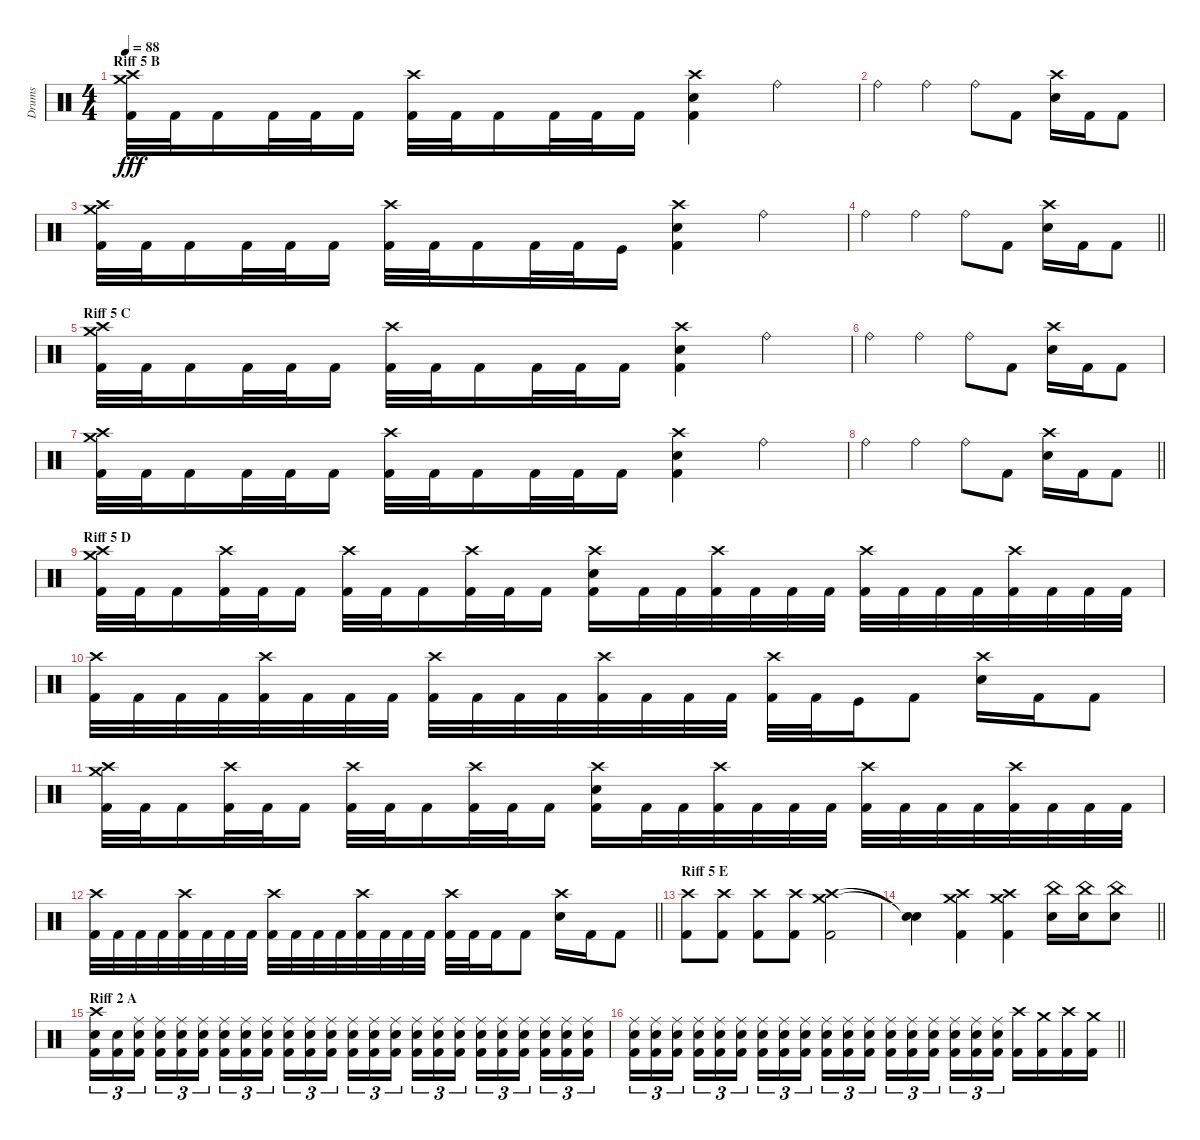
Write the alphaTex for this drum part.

\track ("Drums" "Drums") {instrument percussion}
\staff {score}
\articulation defaults
\ts (4 4)
\section ("" "Riff 5 B")
\tempo 88
\clef neutral
\ks c
("Crash medium (hit)" "Crash high (hit)" "Kick (hit) 2").32{dy fff} "Kick (hit) 2".32 "Kick (hit) 2".16 "Kick (hit) 2".32 "Kick (hit) 2".32 "Kick (hit) 2".16 ("Crash high (hit)" "Kick (hit) 2").32 "Kick (hit) 2".32 "Kick (hit) 2".16 "Kick (hit) 2".32 "Kick (hit) 2".32 "Kick (hit) 2".16 ("Crash high (hit)" "Electric Snare (hit)" "Kick (hit) 2").4 "Ride (bell)".4 |
"Ride (bell)".4 "Ride (bell)".4 "Ride (bell)".8 "Kick (hit) 2".8 ("Crash high (hit)" "Electric Snare (hit)").16 "Kick (hit) 2".16 "Kick (hit) 2".8 |
("Crash medium (hit)" "Crash high (hit)" "Kick (hit) 2").32 "Kick (hit) 2".32 "Kick (hit) 2".16 "Kick (hit) 2".32 "Kick (hit) 2".32 "Kick (hit) 2".16 ("Crash high (hit)" "Kick (hit) 2").32 "Kick (hit) 2".32 "Kick (hit) 2".16 "Kick (hit) 2".32 "Kick (hit) 2".32 "Kick (hit)".16 ("Crash high (hit)" "Electric Snare (hit)" "Kick (hit) 2").4 "Ride (bell)".4 |
\barLineRight lightlight "Ride (bell)".4 "Ride (bell)".4 "Ride (bell)".8 "Kick (hit) 2".8
("Crash high (hit)" "Electric Snare (hit)").16 "Kick (hit) 2".16 "Kick (hit) 2".8 |
\section ("" "Riff 5 C")
("Crash medium (hit)" "Crash high (hit)" "Kick (hit) 2").32 "Kick (hit) 2".32 "Kick (hit) 2".16 "Kick (hit) 2".32 "Kick (hit) 2".32 "Kick (hit) 2".16 ("Crash high (hit)" "Kick (hit) 2").32 "Kick (hit) 2".32 "Kick (hit) 2".16 "Kick (hit) 2".32 "Kick (hit) 2".32 "Kick (hit) 2".16 ("Crash high (hit)" "Electric Snare (hit)" "Kick (hit) 2").4 "Ride (bell)".4 |
"Ride (bell)".4 "Ride (bell)".4 "Ride (bell)".8 "Kick (hit) 2".8 ("Crash high (hit)" "Electric Snare (hit)").16 "Kick (hit) 2".16 "Kick (hit) 2".8 |
("Crash medium (hit)" "Crash high (hit)" "Kick (hit) 2").32 "Kick (hit) 2".32 "Kick (hit) 2".16 "Kick (hit) 2".32 "Kick (hit) 2".32 "Kick (hit) 2".16 ("Crash high (hit)" "Kick (hit) 2").32 "Kick (hit) 2".32 "Kick (hit) 2".16 "Kick (hit) 2".32 "Kick (hit) 2".32 "Kick (hit) 2".16 ("Crash high (hit)" "Electric Snare (hit)" "Kick (hit) 2").4 "Ride (bell)".4 |
\barLineRight lightlight "Ride (bell)".4 "Ride (bell)".4 "Ride (bell)".8 "Kick (hit) 2".8
("Crash high (hit)" "Electric Snare (hit)").16 "Kick (hit) 2".16 "Kick (hit) 2".8 |
\section ("" "Riff 5 D")
("Crash medium (hit)" "Crash high (hit)" "Kick (hit) 2").32 "Kick (hit) 2".32 "Kick (hit) 2".16 ("Crash high (hit)" "Kick (hit) 2").32 "Kick (hit) 2".32 "Kick (hit) 2".16 ("Crash high (hit)" "Kick (hit) 2").32 "Kick (hit) 2".32 "Kick (hit) 2".16 ("Crash high (hit)" "Kick (hit) 2").32 "Kick (hit) 2".32 "Kick (hit) 2".16 ("Crash high (hit)" "Electric Snare (hit)" "Kick (hit) 2").16 "Kick (hit) 2".32 "Kick (hit) 2".32 ("Crash high (hit)" "Kick (hit) 2").32 "Kick (hit) 2".32 "Kick (hit) 2".32 "Kick (hit) 2".32 ("Crash high (hit)" "Kick (hit) 2").32 "Kick (hit) 2".32 "Kick (hit) 2".32 "Kick (hit) 2".32 ("Crash high (hit)" "Kick (hit) 2").32 "Kick (hit) 2".32 "Kick (hit) 2".32 "Kick (hit) 2".32 |
("Crash high (hit)" "Kick (hit) 2").32 "Kick (hit) 2".32 "Kick (hit) 2".32 "Kick (hit) 2".32 ("Crash high (hit)" "Kick (hit) 2").32 "Kick (hit) 2".32 "Kick (hit) 2".32 "Kick (hit) 2".32 ("Crash high (hit)" "Kick (hit) 2").32 "Kick (hit) 2".32 "Kick (hit) 2".32 "Kick (hit) 2".32 ("Crash high (hit)" "Kick (hit) 2").32 "Kick (hit) 2".32 "Kick (hit) 2".32 "Kick (hit) 2".32 ("Crash high (hit)" "Kick (hit) 2").32 "Kick (hit) 2".32 "Kick (hit)".16 "Kick (hit) 2".8 ("Crash high (hit)" "Electric Snare (hit)").16 "Kick (hit) 2".16 "Kick (hit) 2".8 |
("Crash medium (hit)" "Crash high (hit)" "Kick (hit) 2").32 "Kick (hit) 2".32 "Kick (hit) 2".16 ("Crash high (hit)" "Kick (hit) 2").32 "Kick (hit) 2".32 "Kick (hit) 2".16 ("Crash high (hit)" "Kick (hit) 2").32 "Kick (hit) 2".32 "Kick (hit) 2".16 ("Crash high (hit)" "Kick (hit) 2").32 "Kick (hit) 2".32 "Kick (hit) 2".16 ("Crash high (hit)" "Electric Snare (hit)" "Kick (hit) 2").16 "Kick (hit) 2".32 "Kick (hit) 2".32 ("Crash high (hit)" "Kick (hit) 2").32 "Kick (hit) 2".32 "Kick (hit) 2".32 "Kick (hit) 2".32 ("Crash high (hit)" "Kick (hit) 2").32 "Kick (hit) 2".32 "Kick (hit) 2".32 "Kick (hit) 2".32 ("Crash high (hit)" "Kick (hit) 2").32 "Kick (hit) 2".32 "Kick (hit) 2".32 "Kick (hit) 2".32 |
\barLineRight lightlight
("Crash high (hit)" "Kick (hit) 2").32 "Kick (hit) 2".32 "Kick (hit) 2".32 "Kick (hit) 2".32 ("Crash high (hit)" "Kick (hit) 2").32 "Kick (hit) 2".32 "Kick (hit) 2".32 "Kick (hit) 2".32 ("Crash high (hit)" "Kick (hit) 2").32 "Kick (hit) 2".32 "Kick (hit) 2".32 "Kick (hit) 2".32 ("Crash high (hit)" "Kick (hit) 2").32 "Kick (hit) 2".32 "Kick (hit) 2".32 "Kick (hit) 2".32 ("Crash high (hit)" "Kick (hit) 2").32 "Kick (hit) 2".32 "Kick (hit) 2".16 "Kick (hit) 2".8 ("Crash high (hit)" "Electric Snare (hit)").16 "Kick (hit) 2".16 "Kick (hit) 2".8 |
\section ("" "Riff 5 E")
("Crash high (hit)" "Kick (hit) 2").8 ("Crash high (hit)" "Kick (hit) 2").8 ("Crash high (hit)" "Kick (hit) 2").8 ("Crash high (hit)" "Kick (hit) 2").8 ("Crash medium (hit)" "Crash high (hit)" "Kick (hit) 2").2 |
\barLineRight lightlight
("Snare (hit)"{t} "Snare (hit)"{t}).4 ("Crash medium (hit)" "Crash high (hit)" "Kick (hit) 2").4 ("Crash medium (hit)" "Crash high (hit)" "Kick (hit) 2").4 ("China (hit)" "Electric Snare (hit)").16 ("China (hit)" "Electric Snare (hit)").16 ("China (hit)" "Electric Snare (hit)").8 |
\section ("" "Riff 2 A")
("Crash high (hit)" "Electric Snare (hit)" "Kick (hit) 2").16{tu (3 2)} ("Electric Snare (hit)" "Kick (hit) 2").16{tu (3 2)} ("Ride (middle)" "Electric Snare (hit)" "Kick (hit) 2").16{tu (3 2) beam splitsecondary} ("Ride (middle)" "Electric Snare (hit)" "Kick (hit) 2").16{tu (3 2)} ("Ride (middle)" "Electric Snare (hit)" "Kick (hit) 2").16{tu (3 2)} ("Ride (middle)" "Electric Snare (hit)" "Kick (hit) 2").16{tu (3 2)} ("Ride (middle)" "Electric Snare (hit)" "Kick (hit) 2").16{tu (3 2)} ("Ride (middle)" "Electric Snare (hit)" "Kick (hit) 2").16{tu (3 2)} ("Ride (middle)" "Electric Snare (hit)" "Kick (hit) 2").16{tu (3 2) beam splitsecondary} ("Ride (middle)" "Electric Snare (hit)" "Kick (hit) 2").16{tu (3 2)} ("Ride (middle)" "Electric Snare (hit)" "Kick (hit) 2").16{tu (3 2)} ("Ride (middle)" "Electric Snare (hit)" "Kick (hit) 2").16{tu (3 2)} ("Ride (middle)" "Electric Snare (hit)" "Kick (hit) 2").16{tu (3 2)} ("Ride (middle)" "Electric Snare (hit)" "Kick (hit) 2").16{tu (3 2)} ("Ride (middle)" "Electric Snare (hit)" "Kick (hit) 2").16{tu (3 2) beam splitsecondary} ("Ride (middle)" "Electric Snare (hit)" "Kick (hit) 2").16{tu (3 2)} ("Ride (middle)" "Electric Snare (hit)" "Kick (hit) 2").16{tu (3 2)} ("Ride (middle)" "Electric Snare (hit)" "Kick (hit) 2").16{tu (3 2)} ("Ride (middle)" "Electric Snare (hit)" "Kick (hit) 2").16{tu (3 2)} ("Ride (middle)" "Electric Snare (hit)" "Kick (hit) 2").16{tu (3 2)} ("Ride (middle)" "Electric Snare (hit)" "Kick (hit) 2").16{tu (3 2) beam splitsecondary} ("Ride (middle)" "Electric Snare (hit)" "Kick (hit) 2").16{tu (3 2)} ("Ride (middle)" "Electric Snare (hit)" "Kick (hit) 2").16{tu (3 2)} ("Ride (middle)" "Electric Snare (hit)" "Kick (hit) 2").16{tu (3 2)} |
\barLineRight lightlight
("Ride (middle)" "Electric Snare (hit)" "Kick (hit) 2").16{tu (3 2)} ("Ride (middle)" "Electric Snare (hit)" "Kick (hit) 2").16{tu (3 2)} ("Ride (middle)" "Electric Snare (hit)" "Kick (hit) 2").16{tu (3 2) beam splitsecondary} ("Ride (middle)" "Electric Snare (hit)" "Kick (hit) 2").16{tu (3 2)} ("Ride (middle)" "Electric Snare (hit)" "Kick (hit) 2").16{tu (3 2)} ("Ride (middle)" "Electric Snare (hit)" "Kick (hit) 2").16{tu (3 2)} ("Ride (middle)" "Electric Snare (hit)" "Kick (hit) 2").16{tu (3 2)} ("Ride (middle)" "Electric Snare (hit)" "Kick (hit) 2").16{tu (3 2)} ("Ride (middle)" "Electric Snare (hit)" "Kick (hit) 2").16{tu (3 2) beam splitsecondary} ("Ride (middle)" "Electric Snare (hit)" "Kick (hit) 2").16{tu (3 2)} ("Ride (middle)" "Electric Snare (hit)" "Kick (hit) 2").16{tu (3 2)} ("Ride (middle)" "Electric Snare (hit)" "Kick (hit) 2").16{tu (3 2)} ("Ride (middle)" "Electric Snare (hit)" "Kick (hit) 2").16{tu (3 2)} ("Ride (middle)" "Electric Snare (hit)" "Kick (hit) 2").16{tu (3 2)} ("Ride (middle)" "Electric Snare (hit)" "Kick (hit) 2").16{tu (3 2) beam splitsecondary} ("Ride (middle)" "Electric Snare (hit)" "Kick (hit) 2").16{tu (3 2)} ("Ride (middle)" "Electric Snare (hit)" "Kick (hit) 2").16{tu (3 2)} ("Ride (middle)" "Electric Snare (hit)" "Kick (hit) 2").16{tu (3 2)} ("Crash high (hit)" "Kick (hit) 2").16 ("Crash medium (hit)" "Kick (hit) 2").16 ("Crash high (hit)" "Kick (hit) 2").16 ("Crash medium (hit)" "Kick (hit) 2").16
